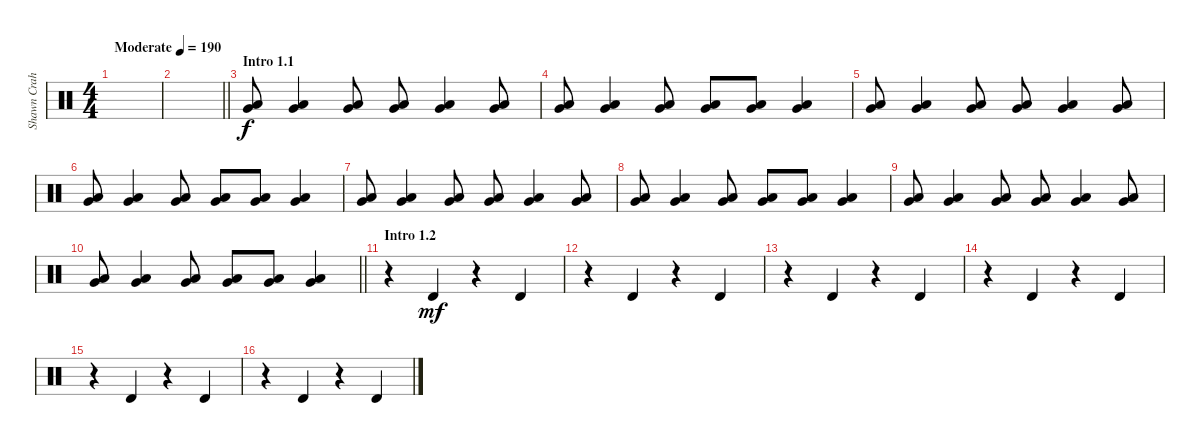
\track ("Shawn Crahan" "Shawn Crah") {instrument percussion}
\staff {score}
\articulation defaults
\ts (4 4)
\tempo (190 "Moderate")
\clef neutral
\ks c
|
\barLineRight lightlight
|
\section ("" "Intro 1.1")
("Very Low Tom (hit)" "Low Floor Tom (hit)").8 ("Very Low Tom (hit)" "Low Floor Tom (hit)").4 ("Very Low Tom (hit)" "Low Floor Tom (hit)").8 ("Very Low Tom (hit)" "Low Floor Tom (hit)").8 ("Very Low Tom (hit)" "Low Floor Tom (hit)").4 ("Very Low Tom (hit)" "Low Floor Tom (hit)").8 |
("Very Low Tom (hit)" "Low Floor Tom (hit)").8 ("Very Low Tom (hit)" "Low Floor Tom (hit)").4 ("Very Low Tom (hit)" "Low Floor Tom (hit)").8 ("Very Low Tom (hit)" "Low Floor Tom (hit)").8 ("Very Low Tom (hit)" "Low Floor Tom (hit)").8 ("Very Low Tom (hit)" "Low Floor Tom (hit)").4 |
("Very Low Tom (hit)" "Low Floor Tom (hit)").8 ("Very Low Tom (hit)" "Low Floor Tom (hit)").4 ("Very Low Tom (hit)" "Low Floor Tom (hit)").8 ("Very Low Tom (hit)" "Low Floor Tom (hit)").8 ("Very Low Tom (hit)" "Low Floor Tom (hit)").4 ("Very Low Tom (hit)" "Low Floor Tom (hit)").8 |
("Very Low Tom (hit)" "Low Floor Tom (hit)").8 ("Very Low Tom (hit)" "Low Floor Tom (hit)").4 ("Very Low Tom (hit)" "Low Floor Tom (hit)").8 ("Very Low Tom (hit)" "Low Floor Tom (hit)").8 ("Very Low Tom (hit)" "Low Floor Tom (hit)").8 ("Very Low Tom (hit)" "Low Floor Tom (hit)").4 |
("Very Low Tom (hit)" "Low Floor Tom (hit)").8 ("Very Low Tom (hit)" "Low Floor Tom (hit)").4 ("Very Low Tom (hit)" "Low Floor Tom (hit)").8 ("Very Low Tom (hit)" "Low Floor Tom (hit)").8 ("Very Low Tom (hit)" "Low Floor Tom (hit)").4 ("Very Low Tom (hit)" "Low Floor Tom (hit)").8 |
("Very Low Tom (hit)" "Low Floor Tom (hit)").8 ("Very Low Tom (hit)" "Low Floor Tom (hit)").4 ("Very Low Tom (hit)" "Low Floor Tom (hit)").8 ("Very Low Tom (hit)" "Low Floor Tom (hit)").8 ("Very Low Tom (hit)" "Low Floor Tom (hit)").8 ("Very Low Tom (hit)" "Low Floor Tom (hit)").4 |
("Very Low Tom (hit)" "Low Floor Tom (hit)").8 ("Very Low Tom (hit)" "Low Floor Tom (hit)").4 ("Very Low Tom (hit)" "Low Floor Tom (hit)").8 ("Very Low Tom (hit)" "Low Floor Tom (hit)").8 ("Very Low Tom (hit)" "Low Floor Tom (hit)").4 ("Very Low Tom (hit)" "Low Floor Tom (hit)").8 |
\barLineRight lightlight
("Very Low Tom (hit)" "Low Floor Tom (hit)").8 ("Very Low Tom (hit)" "Low Floor Tom (hit)").4 ("Very Low Tom (hit)" "Low Floor Tom (hit)").8 ("Very Low Tom (hit)" "Low Floor Tom (hit)").8 ("Very Low Tom (hit)" "Low Floor Tom (hit)").8 ("Very Low Tom (hit)" "Low Floor Tom (hit)").4 |
\section ("" "Intro 1.2")
r.4 "Timbale high (hit)".4{dy mf} r.4 "Timbale high (hit)".4 |
r.4 "Timbale high (hit)".4 r.4 "Timbale high (hit)".4 |
r.4 "Timbale high (hit)".4 r.4 "Timbale high (hit)".4 |
r.4 "Timbale high (hit)".4 r.4 "Timbale high (hit)".4 |
r.4 "Timbale high (hit)".4 r.4 "Timbale high (hit)".4 |
r.4 "Timbale high (hit)".4 r.4 "Timbale high (hit)".4
